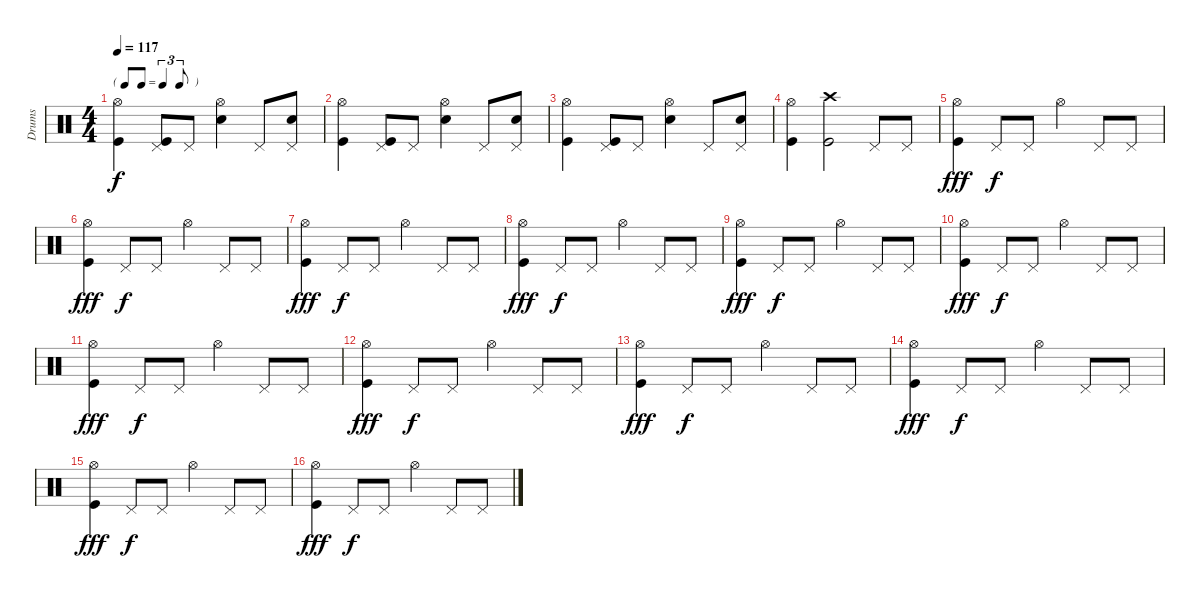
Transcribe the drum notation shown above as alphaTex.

\track ("Drums" "Drums") {instrument percussion}
\staff {score}
\articulation defaults
\ts (4 4)
\tf triplet8th
\tempo 117
\clef neutral
\ks c
("Hi-Hat (open)" "Kick (hit)").4{dy f} ("Pedal Hi-Hat (hit)" "Kick (hit)").8 "Pedal Hi-Hat (hit)".8 ("Hi-Hat (open)" "Snare (hit) 2").4 "Pedal Hi-Hat (hit)".8 ("Pedal Hi-Hat (hit)" "Snare (hit) 2").8 |
("Hi-Hat (open)" "Kick (hit)").4 ("Pedal Hi-Hat (hit)" "Kick (hit)").8 "Pedal Hi-Hat (hit)".8 ("Hi-Hat (open)" "Snare (hit) 2").4 "Pedal Hi-Hat (hit)".8 ("Pedal Hi-Hat (hit)" "Snare (hit) 2").8 |
("Hi-Hat (open)" "Kick (hit)").4 ("Pedal Hi-Hat (hit)" "Kick (hit)").8 "Pedal Hi-Hat (hit)".8 ("Hi-Hat (open)" "Snare (hit) 2").4 "Pedal Hi-Hat (hit)".8 ("Pedal Hi-Hat (hit)" "Snare (hit) 2").8 |
("Hi-Hat (open)" "Kick (hit)").4 ("Crash high (hit)" "Kick (hit)").2 "Pedal Hi-Hat (hit)".8 "Pedal Hi-Hat (hit)".8 |
("Hi-Hat (open)" "Kick (hit)").4{dy fff} "Pedal Hi-Hat (hit)".8{dy f} "Pedal Hi-Hat (hit)".8 "Hi-Hat (open)".4 "Pedal Hi-Hat (hit)".8 "Pedal Hi-Hat (hit)".8 |
("Hi-Hat (open)" "Kick (hit)").4{dy fff} "Pedal Hi-Hat (hit)".8{dy f} "Pedal Hi-Hat (hit)".8 "Hi-Hat (open)".4 "Pedal Hi-Hat (hit)".8 "Pedal Hi-Hat (hit)".8 |
("Hi-Hat (open)" "Kick (hit)").4{dy fff} "Pedal Hi-Hat (hit)".8{dy f} "Pedal Hi-Hat (hit)".8 "Hi-Hat (open)".4 "Pedal Hi-Hat (hit)".8 "Pedal Hi-Hat (hit)".8 |
("Hi-Hat (open)" "Kick (hit)").4{dy fff} "Pedal Hi-Hat (hit)".8{dy f} "Pedal Hi-Hat (hit)".8 "Hi-Hat (open)".4 "Pedal Hi-Hat (hit)".8 "Pedal Hi-Hat (hit)".8 |
("Hi-Hat (open)" "Kick (hit)").4{dy fff} "Pedal Hi-Hat (hit)".8{dy f} "Pedal Hi-Hat (hit)".8 "Hi-Hat (open)".4 "Pedal Hi-Hat (hit)".8 "Pedal Hi-Hat (hit)".8 |
("Hi-Hat (open)" "Kick (hit)").4{dy fff} "Pedal Hi-Hat (hit)".8{dy f} "Pedal Hi-Hat (hit)".8 "Hi-Hat (open)".4 "Pedal Hi-Hat (hit)".8 "Pedal Hi-Hat (hit)".8 |
("Hi-Hat (open)" "Kick (hit)").4{dy fff} "Pedal Hi-Hat (hit)".8{dy f} "Pedal Hi-Hat (hit)".8 "Hi-Hat (open)".4 "Pedal Hi-Hat (hit)".8 "Pedal Hi-Hat (hit)".8 |
("Hi-Hat (open)" "Kick (hit)").4{dy fff} "Pedal Hi-Hat (hit)".8{dy f} "Pedal Hi-Hat (hit)".8 "Hi-Hat (open)".4 "Pedal Hi-Hat (hit)".8 "Pedal Hi-Hat (hit)".8 |
("Hi-Hat (open)" "Kick (hit)").4{dy fff} "Pedal Hi-Hat (hit)".8{dy f} "Pedal Hi-Hat (hit)".8 "Hi-Hat (open)".4 "Pedal Hi-Hat (hit)".8 "Pedal Hi-Hat (hit)".8 |
("Hi-Hat (open)" "Kick (hit)").4{dy fff} "Pedal Hi-Hat (hit)".8{dy f} "Pedal Hi-Hat (hit)".8 "Hi-Hat (open)".4 "Pedal Hi-Hat (hit)".8 "Pedal Hi-Hat (hit)".8 |
("Hi-Hat (open)" "Kick (hit)").4{dy fff} "Pedal Hi-Hat (hit)".8{dy f} "Pedal Hi-Hat (hit)".8 "Hi-Hat (open)".4 "Pedal Hi-Hat (hit)".8 "Pedal Hi-Hat (hit)".8 |
("Hi-Hat (open)" "Kick (hit)").4{dy fff} "Pedal Hi-Hat (hit)".8{dy f} "Pedal Hi-Hat (hit)".8 "Hi-Hat (open)".4 "Pedal Hi-Hat (hit)".8 "Pedal Hi-Hat (hit)".8
